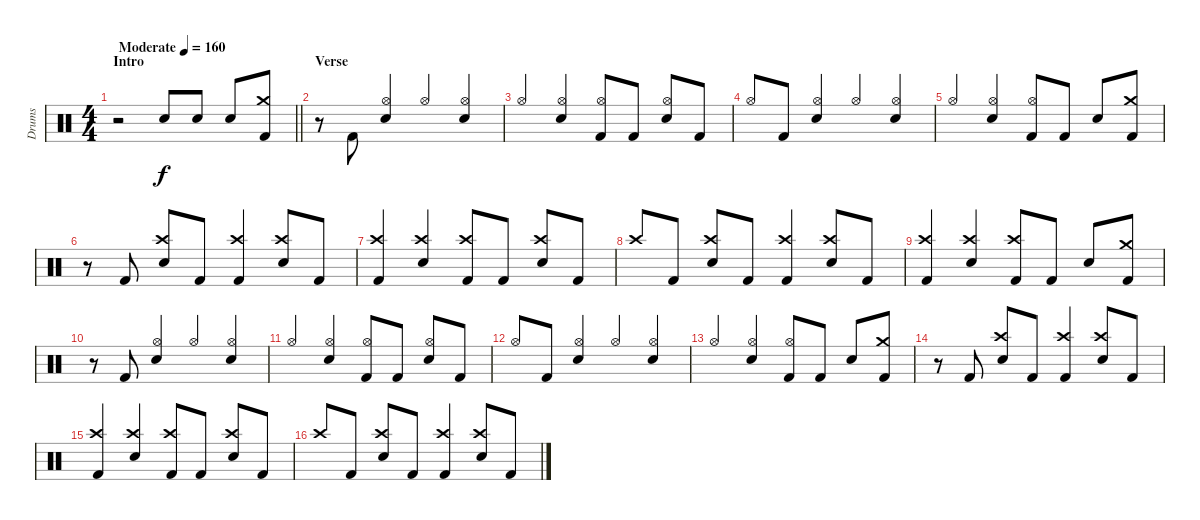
\track ("Drums" "Drums") {solo instrument percussion}
\staff {score}
\articulation defaults
\ts (4 4)
\section ("" "Intro")
\tempo (160 "Moderate")
\clef neutral
\barLineRight lightlight
\ks c
r.2{dy f} "Snare (hit) 2".8{beam Up} "Snare (hit) 2".8{beam Up} "Snare (hit) 2".8{beam Up} ("Crash medium (hit)" "Kick (hit) 2").8{beam Up} |
\section ("" "Verse")
r.8 "Kick (hit) 2".8{beam Down} ("Hi-Hat (open)" "Snare (hit) 2").4{beam Up} "Hi-Hat (open)".4{beam Up} ("Hi-Hat (open)" "Snare (hit) 2").4{beam Up} |
"Hi-Hat (open)".4{beam Up} ("Hi-Hat (open)" "Snare (hit) 2").4{beam Up} ("Hi-Hat (open)" "Kick (hit) 2").8{beam Up} "Kick (hit) 2".8{beam Up} ("Hi-Hat (open)" "Snare (hit) 2").8{beam Up} "Kick (hit) 2".8{beam Up} |
"Hi-Hat (open)".8{beam Up} "Kick (hit) 2".8{beam Up} ("Hi-Hat (open)" "Snare (hit) 2").4{beam Up} "Hi-Hat (open)".4{beam Up} ("Hi-Hat (open)" "Snare (hit) 2").4{beam Up} |
"Hi-Hat (open)".4{beam Up} ("Hi-Hat (open)" "Snare (hit) 2").4{beam Up} ("Hi-Hat (open)" "Kick (hit) 2").8{beam Up} "Kick (hit) 2".8{beam Up} "Snare (hit) 2".8{beam Up} ("Crash medium (hit)" "Kick (hit) 2").8{beam Up} |
r.8{beam Up} "Kick (hit) 2".8{beam Down} ("Crash high (hit)" "Snare (hit) 2").8{beam Up} "Kick (hit) 2".8{beam Up} ("Crash high (hit)" "Kick (hit) 2").4{beam Up} ("Crash high (hit)" "Snare (hit) 2").8{beam Up} "Kick (hit) 2".8{beam Up} |
("Crash high (hit)" "Kick (hit) 2").4{beam Up} ("Crash high (hit)" "Snare (hit) 2").4{beam Up} ("Crash high (hit)" "Kick (hit) 2").8{beam Up} "Kick (hit) 2".8{beam Up} ("Crash high (hit)" "Snare (hit) 2").8{beam Up} "Kick (hit) 2".8{beam Up} |
"Crash high (hit)".8{beam Up} "Kick (hit) 2".8{beam Up} ("Crash high (hit)" "Snare (hit) 2").8{beam Up} "Kick (hit) 2".8{beam Up} ("Crash high (hit)" "Kick (hit) 2").4{beam Up} ("Crash high (hit)" "Snare (hit) 2").8{beam Up} "Kick (hit) 2".8{beam Up} |
("Crash high (hit)" "Kick (hit) 2").4{beam Up} ("Crash high (hit)" "Snare (hit) 2").4{beam Up} ("Crash high (hit)" "Kick (hit) 2").8{beam Up} "Kick (hit) 2".8{beam Up} "Snare (hit) 2".8{beam Up} ("Crash medium (hit)" "Kick (hit) 2").8{beam Up} |
r.8{beam Up} "Kick (hit) 2".8{beam Down} ("Hi-Hat (open)" "Snare (hit) 2").4{beam Up} "Hi-Hat (open)".4{beam Up} ("Hi-Hat (open)" "Snare (hit) 2").4{beam Up} |
"Hi-Hat (open)".4{beam Up} ("Hi-Hat (open)" "Snare (hit) 2").4{beam Up} ("Hi-Hat (open)" "Kick (hit) 2").8{beam Up} "Kick (hit) 2".8{beam Up} ("Hi-Hat (open)" "Snare (hit) 2").8{beam Up} "Kick (hit) 2".8{beam Up} |
"Hi-Hat (open)".8{beam Up} "Kick (hit) 2".8{beam Up} ("Hi-Hat (open)" "Snare (hit) 2").4{beam Up} "Hi-Hat (open)".4{beam Up} ("Hi-Hat (open)" "Snare (hit) 2").4{beam Up} |
"Hi-Hat (open)".4{beam Up} ("Hi-Hat (open)" "Snare (hit) 2").4{beam Up} ("Hi-Hat (open)" "Kick (hit) 2").8{beam Up} "Kick (hit) 2".8{beam Up} "Snare (hit) 2".8{beam Up} ("Crash medium (hit)" "Kick (hit) 2").8{beam Up} |
r.8{beam Up} "Kick (hit) 2".8{beam Down} ("Crash high (hit)" "Snare (hit) 2").8{beam Up} "Kick (hit) 2".8{beam Up} ("Crash high (hit)" "Kick (hit) 2").4{beam Up} ("Crash high (hit)" "Snare (hit) 2").8{beam Up} "Kick (hit) 2".8{beam Up} |
("Crash high (hit)" "Kick (hit) 2").4{beam Up} ("Crash high (hit)" "Snare (hit) 2").4{beam Up} ("Crash high (hit)" "Kick (hit) 2").8{beam Up} "Kick (hit) 2".8{beam Up} ("Crash high (hit)" "Snare (hit) 2").8{beam Up} "Kick (hit) 2".8{beam Up} |
"Crash high (hit)".8{beam Up} "Kick (hit) 2".8{beam Up} ("Crash high (hit)" "Snare (hit) 2").8{beam Up} "Kick (hit) 2".8{beam Up} ("Crash high (hit)" "Kick (hit) 2").4{beam Up} ("Crash high (hit)" "Snare (hit) 2").8{beam Up} "Kick (hit) 2".8{beam Up}
